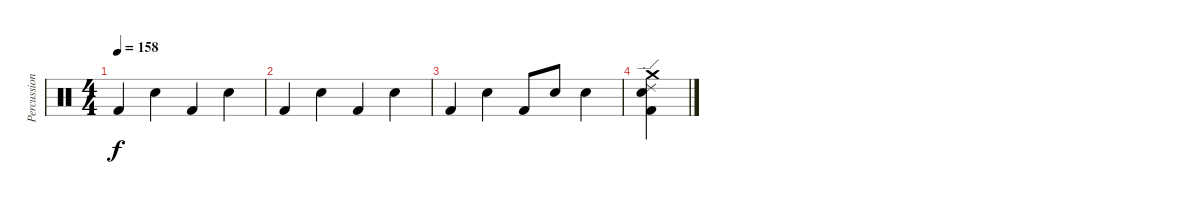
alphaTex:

\track ("Percussions" "Percussion") {instrument percussion}
\staff {score}
\articulation defaults
\ts (4 4)
\tempo 158
\clef neutral
\ks c "Kick (hit) 2".4{dy f} "Electric Snare (hit)".4 "Kick (hit) 2".4 "Electric Snare (hit)".4
|
"Kick (hit) 2".4{volume 16} "Electric Snare (hit)".4 "Kick (hit) 2".4 "Electric Snare (hit)".4 |
"Kick (hit) 2".4{volume 16} "Electric Snare (hit)".4 "Kick (hit) 2".8 "Electric Snare (hit)".8 "Electric Snare (hit)".4 |
("Ride (edge) 2" "Kick (hit) 2" "Crash medium (hit)" "Electric Snare (hit)").4
